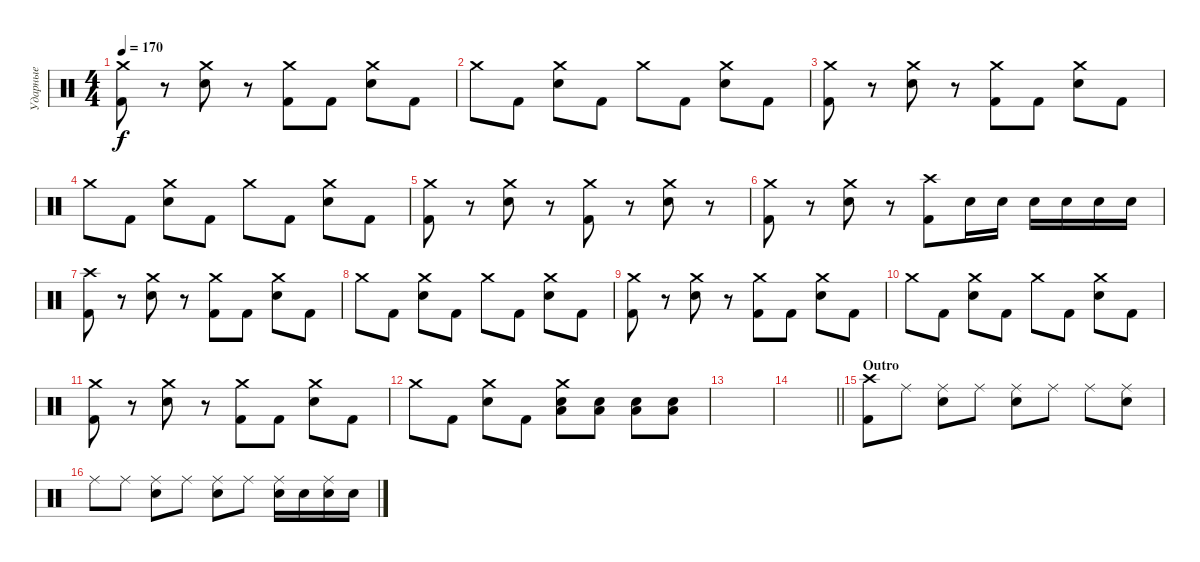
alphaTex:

\track ("Ударные" "Ударные") {instrument percussion}
\staff {score}
\articulation defaults
\ts (4 4)
\tempo 170
\clef neutral
\ks c
("Crash medium (hit)" "Kick (hit) 2").8{dy f} r.8 ("Crash medium (hit)" "Electric Snare (hit)").8 r.8 ("Crash medium (hit)" "Kick (hit) 2").8 "Kick (hit) 2".8 ("Crash medium (hit)" "Electric Snare (hit)").8 "Kick (hit) 2".8 |
"Crash medium (hit)".8 "Kick (hit) 2".8 ("Crash medium (hit)" "Electric Snare (hit)").8 "Kick (hit) 2".8 "Crash medium (hit)".8 "Kick (hit) 2".8 ("Crash medium (hit)" "Electric Snare (hit)").8 "Kick (hit) 2".8 |
("Crash medium (hit)" "Kick (hit) 2").8 r.8 ("Crash medium (hit)" "Electric Snare (hit)").8 r.8 ("Crash medium (hit)" "Kick (hit) 2").8 "Kick (hit) 2".8 ("Crash medium (hit)" "Electric Snare (hit)").8 "Kick (hit) 2".8 |
"Crash medium (hit)".8 "Kick (hit) 2".8 ("Crash medium (hit)" "Electric Snare (hit)").8 "Kick (hit) 2".8 "Crash medium (hit)".8 "Kick (hit) 2".8 ("Crash medium (hit)" "Electric Snare (hit)").8 "Kick (hit) 2".8 |
("Crash medium (hit)" "Kick (hit) 2").8 r.8 ("Crash medium (hit)" "Electric Snare (hit)").8 r.8 ("Crash medium (hit)" "Kick (hit) 2").8 r.8 ("Crash medium (hit)" "Electric Snare (hit)").8 r.8 |
("Crash medium (hit)" "Kick (hit) 2").8 r.8 ("Crash medium (hit)" "Electric Snare (hit)").8 r.8 ("Crash high (hit)" "Kick (hit) 2").8 "Electric Snare (hit)".16 "Electric Snare (hit)".16 "Electric Snare (hit)".16 "Electric Snare (hit)".16 "Electric Snare (hit)".16 "Electric Snare (hit)".16 |
("Crash high (hit)" "Kick (hit) 2").8 r.8 ("Crash medium (hit)" "Electric Snare (hit)").8 r.8 ("Crash medium (hit)" "Kick (hit) 2").8 "Kick (hit) 2".8 ("Crash medium (hit)" "Electric Snare (hit)").8 "Kick (hit) 2".8 |
"Crash medium (hit)".8 "Kick (hit) 2".8 ("Crash medium (hit)" "Electric Snare (hit)").8 "Kick (hit) 2".8 "Crash medium (hit)".8 "Kick (hit) 2".8 ("Crash medium (hit)" "Electric Snare (hit)").8 "Kick (hit) 2".8 |
("Crash medium (hit)" "Kick (hit) 2").8 r.8 ("Crash medium (hit)" "Electric Snare (hit)").8 r.8 ("Crash medium (hit)" "Kick (hit) 2").8 "Kick (hit) 2".8 ("Crash medium (hit)" "Electric Snare (hit)").8 "Kick (hit) 2".8 |
"Crash medium (hit)".8 "Kick (hit) 2".8 ("Crash medium (hit)" "Electric Snare (hit)").8 "Kick (hit) 2".8 "Crash medium (hit)".8 "Kick (hit) 2".8 ("Crash medium (hit)" "Electric Snare (hit)").8 "Kick (hit) 2".8 |
("Crash medium (hit)" "Kick (hit) 2").8 r.8 ("Crash medium (hit)" "Electric Snare (hit)").8 r.8 ("Crash medium (hit)" "Kick (hit) 2").8 "Kick (hit) 2".8 ("Crash medium (hit)" "Electric Snare (hit)").8 "Kick (hit) 2".8 |
"Crash medium (hit)".8 "Kick (hit) 2".8 ("Crash medium (hit)" "Electric Snare (hit)").8 "Kick (hit) 2".8 ("Crash medium (hit)" "Electric Snare (hit)" "Low Tom (hit)").8 ("Electric Snare (hit)" "Low Tom (hit)").8 ("Electric Snare (hit)" "Low Tom (hit)").8 ("Electric Snare (hit)" "Low Tom (hit)").8 |
|
\barLineRight lightlight
|
\section ("" "Outro")
("Crash high (hit)" "Kick (hit) 2").8 "Ride (middle)".8 ("Ride (middle)" "Electric Snare (hit)").8 "Ride (middle)".8 ("Ride (middle)" "Electric Snare (hit)").8 "Ride (middle)".8 "Ride (middle)".8 ("Ride (middle)" "Electric Snare (hit)").8 |
"Ride (middle)".8 "Ride (middle)".8 ("Ride (middle)" "Electric Snare (hit)").8 "Ride (middle)".8 ("Ride (middle)" "Electric Snare (hit)").8 "Ride (middle)".8 ("Ride (middle)" "Electric Snare (hit)").16 "Electric Snare (hit)".16 ("Ride (middle)" "Electric Snare (hit)").16 "Electric Snare (hit)".16
